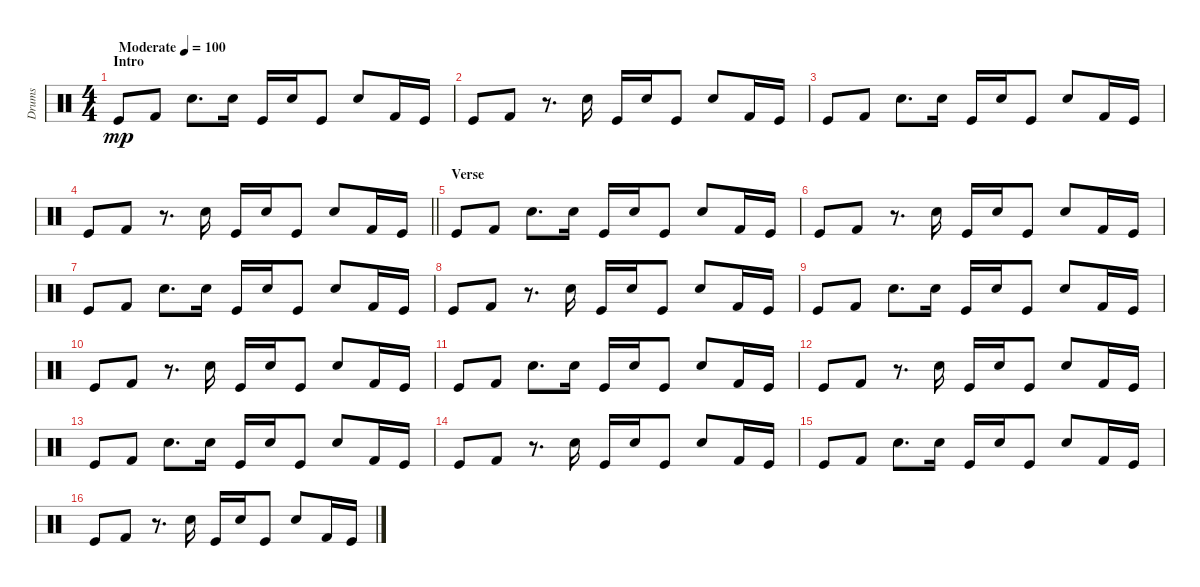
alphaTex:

\track ("Drums" "Drums") {instrument percussion}
\staff {score}
\articulation defaults
\ts (4 4)
\section ("" "Intro")
\tempo (100 "Moderate")
\clef neutral
\ks c "Kick (hit)".8{dy mp} "Kick (hit) 2".8 "Electric Snare (hit)".8{d} "Electric Snare (hit)".16 "Kick (hit)".16 "Electric Snare (hit)".16 "Kick (hit)".8 "Electric Snare (hit)".8 "Kick (hit) 2".16 "Kick (hit)".16
|
"Kick (hit)".8 "Kick (hit) 2".8 r.8{d} "Electric Snare (hit)".16 "Kick (hit)".16 "Electric Snare (hit)".16 "Kick (hit)".8 "Electric Snare (hit)".8 "Kick (hit) 2".16 "Kick (hit)".16 |
"Kick (hit)".8 "Kick (hit) 2".8 "Electric Snare (hit)".8{d} "Electric Snare (hit)".16 "Kick (hit)".16 "Electric Snare (hit)".16 "Kick (hit)".8 "Electric Snare (hit)".8 "Kick (hit) 2".16 "Kick (hit)".16 |
\barLineRight lightlight "Kick (hit)".8 "Kick (hit) 2".8
r.8{d} "Electric Snare (hit)".16 "Kick (hit)".16 "Electric Snare (hit)".16 "Kick (hit)".8 "Electric Snare (hit)".8 "Kick (hit) 2".16 "Kick (hit)".16 |
\section ("" "Verse")
"Kick (hit)".8 "Kick (hit) 2".8 "Electric Snare (hit)".8{d} "Electric Snare (hit)".16 "Kick (hit)".16 "Electric Snare (hit)".16 "Kick (hit)".8 "Electric Snare (hit)".8 "Kick (hit) 2".16 "Kick (hit)".16 |
"Kick (hit)".8 "Kick (hit) 2".8 r.8{d} "Electric Snare (hit)".16 "Kick (hit)".16 "Electric Snare (hit)".16 "Kick (hit)".8 "Electric Snare (hit)".8 "Kick (hit) 2".16 "Kick (hit)".16 |
"Kick (hit)".8 "Kick (hit) 2".8 "Electric Snare (hit)".8{d} "Electric Snare (hit)".16 "Kick (hit)".16 "Electric Snare (hit)".16 "Kick (hit)".8 "Electric Snare (hit)".8 "Kick (hit) 2".16 "Kick (hit)".16 |
"Kick (hit)".8 "Kick (hit) 2".8 r.8{d} "Electric Snare (hit)".16 "Kick (hit)".16 "Electric Snare (hit)".16 "Kick (hit)".8 "Electric Snare (hit)".8 "Kick (hit) 2".16 "Kick (hit)".16 |
"Kick (hit)".8 "Kick (hit) 2".8 "Electric Snare (hit)".8{d} "Electric Snare (hit)".16 "Kick (hit)".16 "Electric Snare (hit)".16 "Kick (hit)".8 "Electric Snare (hit)".8 "Kick (hit) 2".16 "Kick (hit)".16 |
"Kick (hit)".8 "Kick (hit) 2".8 r.8{d} "Electric Snare (hit)".16 "Kick (hit)".16 "Electric Snare (hit)".16 "Kick (hit)".8 "Electric Snare (hit)".8 "Kick (hit) 2".16 "Kick (hit)".16 |
"Kick (hit)".8 "Kick (hit) 2".8 "Electric Snare (hit)".8{d} "Electric Snare (hit)".16 "Kick (hit)".16 "Electric Snare (hit)".16 "Kick (hit)".8 "Electric Snare (hit)".8 "Kick (hit) 2".16 "Kick (hit)".16 |
"Kick (hit)".8 "Kick (hit) 2".8 r.8{d} "Electric Snare (hit)".16 "Kick (hit)".16 "Electric Snare (hit)".16 "Kick (hit)".8 "Electric Snare (hit)".8 "Kick (hit) 2".16 "Kick (hit)".16 |
"Kick (hit)".8 "Kick (hit) 2".8 "Electric Snare (hit)".8{d} "Electric Snare (hit)".16 "Kick (hit)".16 "Electric Snare (hit)".16 "Kick (hit)".8 "Electric Snare (hit)".8 "Kick (hit) 2".16 "Kick (hit)".16 |
"Kick (hit)".8 "Kick (hit) 2".8 r.8{d} "Electric Snare (hit)".16 "Kick (hit)".16 "Electric Snare (hit)".16 "Kick (hit)".8 "Electric Snare (hit)".8 "Kick (hit) 2".16 "Kick (hit)".16 |
"Kick (hit)".8 "Kick (hit) 2".8 "Electric Snare (hit)".8{d} "Electric Snare (hit)".16 "Kick (hit)".16 "Electric Snare (hit)".16 "Kick (hit)".8 "Electric Snare (hit)".8 "Kick (hit) 2".16 "Kick (hit)".16 |
"Kick (hit)".8 "Kick (hit) 2".8 r.8{d} "Electric Snare (hit)".16 "Kick (hit)".16 "Electric Snare (hit)".16 "Kick (hit)".8 "Electric Snare (hit)".8 "Kick (hit) 2".16 "Kick (hit)".16
